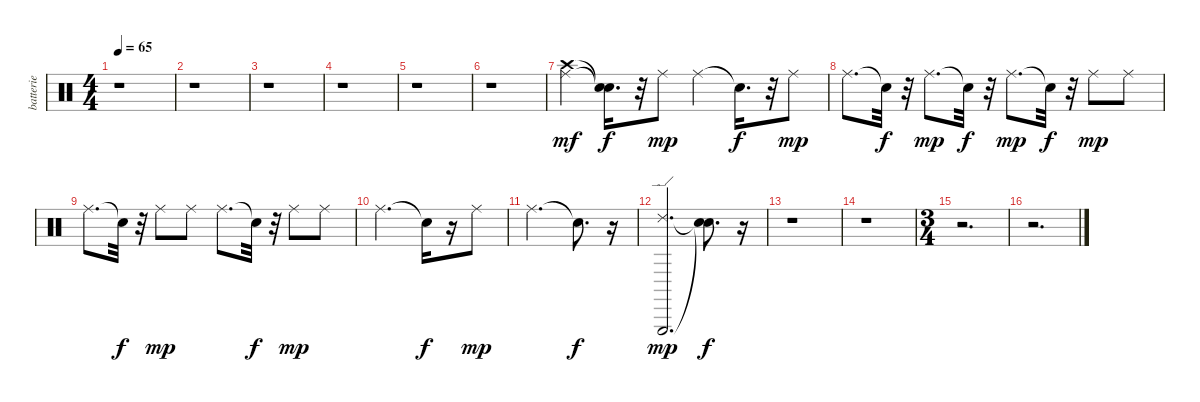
\track ("batterie" "batterie") {instrument percussion}
\staff {score}
\articulation defaults
\ts (4 4)
\tempo 65
\clef neutral
\ks c
r.1{dy f} |
r.1 |
r.1 |
r.1 |
r.1 |
r.1 |
("Crash high (hit)" "Ride (middle)").4{dy mf} ("Snare (hit)"{t} "Snare (hit)"{t}).16{d dy f} r.32 "Ride (middle)".8{dy mp} "Ride (middle)".4 "Snare (hit)"{t}.16{d dy f} r.32 "Ride (middle)".8{dy mp} |
"Ride (middle)".8{d} "Snare (hit)"{t}.32{dy f} r.32 "Ride (middle)".8{d dy mp} "Snare (hit)"{t}.32{dy f} r.32 "Ride (middle)".8{d dy mp} "Snare (hit)"{t}.32{dy f} r.32 "Ride (middle)".8{dy mp} "Ride (middle)".8 |
"Ride (middle)".8{d} "Snare (hit)"{t}.32{dy f} r.32 "Ride (middle)".8{dy mp} "Ride (middle)".8 "Ride (middle)".8{d} "Snare (hit)"{t}.32{dy f} r.32 "Ride (middle)".8{dy mp} "Ride (middle)".8 |
"Ride (middle)".2{d} "Snare (hit)"{t}.16{dy f} r.16 "Ride (middle)".8{dy mp} |
"Ride (middle)".2{d} "Snare (hit)"{t}.8{d dy f} r.16 |
("Ride (edge) 2" "Triangle (hit)").2{d dy mp} ("Snare (hit)"{t} "Snare (hit)"{t}).8{d dy f} r.16 |
r.1 |
r.1 |
\ts (3 4)
r.2{d} |
r.2{d}
